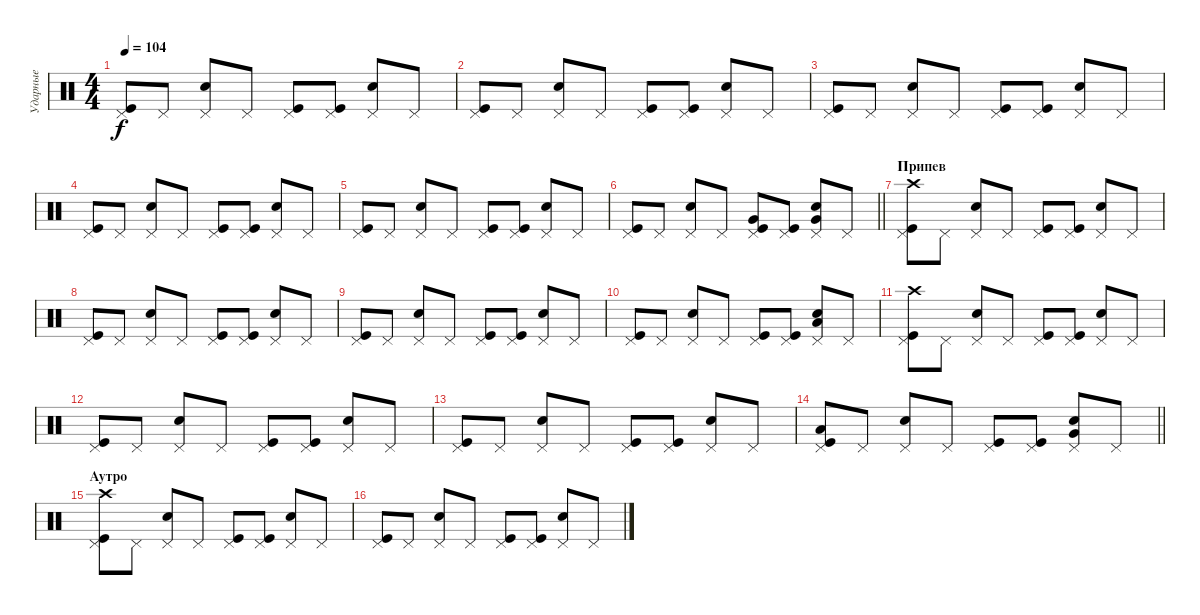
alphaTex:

\track ("Ударные" "Ударные") {instrument percussion}
\staff {score}
\articulation defaults
\ts (4 4)
\tempo 104
\clef neutral
\ks c
("Pedal Hi-Hat (hit)" "Kick (hit)").8{dy f} "Pedal Hi-Hat (hit)".8 ("Pedal Hi-Hat (hit)" "Snare (hit) 2").8 "Pedal Hi-Hat (hit)".8 ("Pedal Hi-Hat (hit)" "Kick (hit)").8 ("Pedal Hi-Hat (hit)" "Kick (hit)").8 ("Pedal Hi-Hat (hit)" "Snare (hit) 2").8 "Pedal Hi-Hat (hit)".8 |
("Pedal Hi-Hat (hit)" "Kick (hit)").8 "Pedal Hi-Hat (hit)".8 ("Pedal Hi-Hat (hit)" "Snare (hit) 2").8 "Pedal Hi-Hat (hit)".8 ("Pedal Hi-Hat (hit)" "Kick (hit)").8 ("Pedal Hi-Hat (hit)" "Kick (hit)").8 ("Pedal Hi-Hat (hit)" "Snare (hit) 2").8 "Pedal Hi-Hat (hit)".8 |
("Pedal Hi-Hat (hit)" "Kick (hit)").8 "Pedal Hi-Hat (hit)".8 ("Pedal Hi-Hat (hit)" "Snare (hit) 2").8 "Pedal Hi-Hat (hit)".8 ("Pedal Hi-Hat (hit)" "Kick (hit)").8 ("Pedal Hi-Hat (hit)" "Kick (hit)").8 ("Pedal Hi-Hat (hit)" "Snare (hit) 2").8 "Pedal Hi-Hat (hit)".8 |
("Pedal Hi-Hat (hit)" "Kick (hit)").8 "Pedal Hi-Hat (hit)".8 ("Pedal Hi-Hat (hit)" "Snare (hit) 2").8 "Pedal Hi-Hat (hit)".8 ("Pedal Hi-Hat (hit)" "Kick (hit)").8 ("Pedal Hi-Hat (hit)" "Kick (hit)").8 ("Pedal Hi-Hat (hit)" "Snare (hit) 2").8 "Pedal Hi-Hat (hit)".8 |
("Pedal Hi-Hat (hit)" "Kick (hit)").8 "Pedal Hi-Hat (hit)".8 ("Pedal Hi-Hat (hit)" "Snare (hit) 2").8 "Pedal Hi-Hat (hit)".8 ("Pedal Hi-Hat (hit)" "Kick (hit)").8 ("Pedal Hi-Hat (hit)" "Kick (hit)").8 ("Pedal Hi-Hat (hit)" "Snare (hit) 2").8 "Pedal Hi-Hat (hit)".8 |
\barLineRight lightlight
("Pedal Hi-Hat (hit)" "Kick (hit)").8 "Pedal Hi-Hat (hit)".8 ("Pedal Hi-Hat (hit)" "Snare (hit) 2").8 "Pedal Hi-Hat (hit)".8 ("Pedal Hi-Hat (hit)" "Kick (hit)" "Very Low Tom (hit)").8 ("Pedal Hi-Hat (hit)" "Kick (hit)").8 ("Pedal Hi-Hat (hit)" "Snare (hit) 2" "Very Low Tom (hit)").8 "Pedal Hi-Hat (hit)".8 |
\section ("" "Припев")
("Pedal Hi-Hat (hit)" "Kick (hit)" "Crash high (hit)").8 "Pedal Hi-Hat (hit)".8 ("Pedal Hi-Hat (hit)" "Snare (hit) 2").8 "Pedal Hi-Hat (hit)".8 ("Pedal Hi-Hat (hit)" "Kick (hit)").8 ("Pedal Hi-Hat (hit)" "Kick (hit)").8 ("Pedal Hi-Hat (hit)" "Snare (hit) 2").8 "Pedal Hi-Hat (hit)".8 |
("Pedal Hi-Hat (hit)" "Kick (hit)").8 "Pedal Hi-Hat (hit)".8 ("Pedal Hi-Hat (hit)" "Snare (hit) 2").8 "Pedal Hi-Hat (hit)".8 ("Pedal Hi-Hat (hit)" "Kick (hit)").8 ("Pedal Hi-Hat (hit)" "Kick (hit)").8 ("Pedal Hi-Hat (hit)" "Snare (hit) 2").8 "Pedal Hi-Hat (hit)".8 |
("Pedal Hi-Hat (hit)" "Kick (hit)").8 "Pedal Hi-Hat (hit)".8 ("Pedal Hi-Hat (hit)" "Snare (hit) 2").8 "Pedal Hi-Hat (hit)".8 ("Pedal Hi-Hat (hit)" "Kick (hit)").8 ("Pedal Hi-Hat (hit)" "Kick (hit)").8 ("Pedal Hi-Hat (hit)" "Snare (hit) 2").8 "Pedal Hi-Hat (hit)".8 |
("Pedal Hi-Hat (hit)" "Kick (hit)").8 "Pedal Hi-Hat (hit)".8 ("Pedal Hi-Hat (hit)" "Snare (hit) 2").8 "Pedal Hi-Hat (hit)".8 ("Pedal Hi-Hat (hit)" "Kick (hit)").8 ("Pedal Hi-Hat (hit)" "Kick (hit)").8 ("Pedal Hi-Hat (hit)" "Snare (hit) 2" "Low Tom (hit)").8 "Pedal Hi-Hat (hit)".8 |
("Pedal Hi-Hat (hit)" "Kick (hit)" "Crash high (hit)").8 "Pedal Hi-Hat (hit)".8 ("Pedal Hi-Hat (hit)" "Snare (hit) 2").8 "Pedal Hi-Hat (hit)".8 ("Pedal Hi-Hat (hit)" "Kick (hit)").8 ("Pedal Hi-Hat (hit)" "Kick (hit)").8 ("Pedal Hi-Hat (hit)" "Snare (hit) 2").8 "Pedal Hi-Hat (hit)".8 |
("Pedal Hi-Hat (hit)" "Kick (hit)").8 "Pedal Hi-Hat (hit)".8 ("Pedal Hi-Hat (hit)" "Snare (hit) 2").8 "Pedal Hi-Hat (hit)".8 ("Pedal Hi-Hat (hit)" "Kick (hit)").8 ("Pedal Hi-Hat (hit)" "Kick (hit)").8 ("Pedal Hi-Hat (hit)" "Snare (hit) 2").8 "Pedal Hi-Hat (hit)".8 |
("Pedal Hi-Hat (hit)" "Kick (hit)").8 "Pedal Hi-Hat (hit)".8 ("Pedal Hi-Hat (hit)" "Snare (hit) 2").8 "Pedal Hi-Hat (hit)".8 ("Pedal Hi-Hat (hit)" "Kick (hit)").8 ("Pedal Hi-Hat (hit)" "Kick (hit)").8 ("Pedal Hi-Hat (hit)" "Snare (hit) 2").8 "Pedal Hi-Hat (hit)".8 |
\barLineRight lightlight
("Pedal Hi-Hat (hit)" "Kick (hit)" "Low Floor Tom (hit)").8 "Pedal Hi-Hat (hit)".8 ("Pedal Hi-Hat (hit)" "Snare (hit) 2").8 "Pedal Hi-Hat (hit)".8 ("Pedal Hi-Hat (hit)" "Kick (hit)").8 ("Pedal Hi-Hat (hit)" "Kick (hit)").8 ("Pedal Hi-Hat (hit)" "Snare (hit) 2" "Very Low Tom (hit)").8 "Pedal Hi-Hat (hit)".8 |
\section ("" "Аутро")
("Pedal Hi-Hat (hit)" "Kick (hit)" "Crash high (hit)").8 "Pedal Hi-Hat (hit)".8 ("Pedal Hi-Hat (hit)" "Snare (hit) 2").8 "Pedal Hi-Hat (hit)".8 ("Pedal Hi-Hat (hit)" "Kick (hit)").8 ("Pedal Hi-Hat (hit)" "Kick (hit)").8 ("Pedal Hi-Hat (hit)" "Snare (hit) 2").8 "Pedal Hi-Hat (hit)".8 |
("Pedal Hi-Hat (hit)" "Kick (hit)").8 "Pedal Hi-Hat (hit)".8 ("Pedal Hi-Hat (hit)" "Snare (hit) 2").8 "Pedal Hi-Hat (hit)".8 ("Pedal Hi-Hat (hit)" "Kick (hit)").8 ("Pedal Hi-Hat (hit)" "Kick (hit)").8 ("Pedal Hi-Hat (hit)" "Snare (hit) 2").8 "Pedal Hi-Hat (hit)".8
